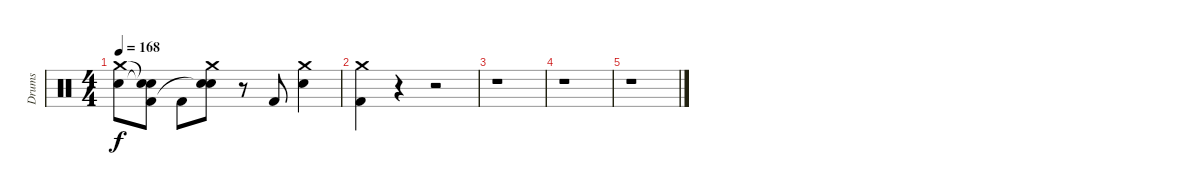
\track ("Drums" "Drums") {instrument percussion}
\staff {score}
\articulation defaults
\ts (4 4)
\tempo 168
\clef neutral
\ks c
("Crash medium (hit)" "Electric Snare (hit)").8{dy f} ("Snare (hit)"{t} "Snare (hit)"{t} "Kick (hit) 2").8 "Kick (hit) 2".8 ("Crash medium (hit)" "Electric Snare (hit)" "Snare (hit)"{t}).8 r.8 "Kick (hit) 2".8 ("Crash medium (hit)" "Electric Snare (hit)").4 |
("Crash medium (hit)" "Kick (hit) 2").4 r.4 r.2 |
r.1 |
r.1 |
r.1
